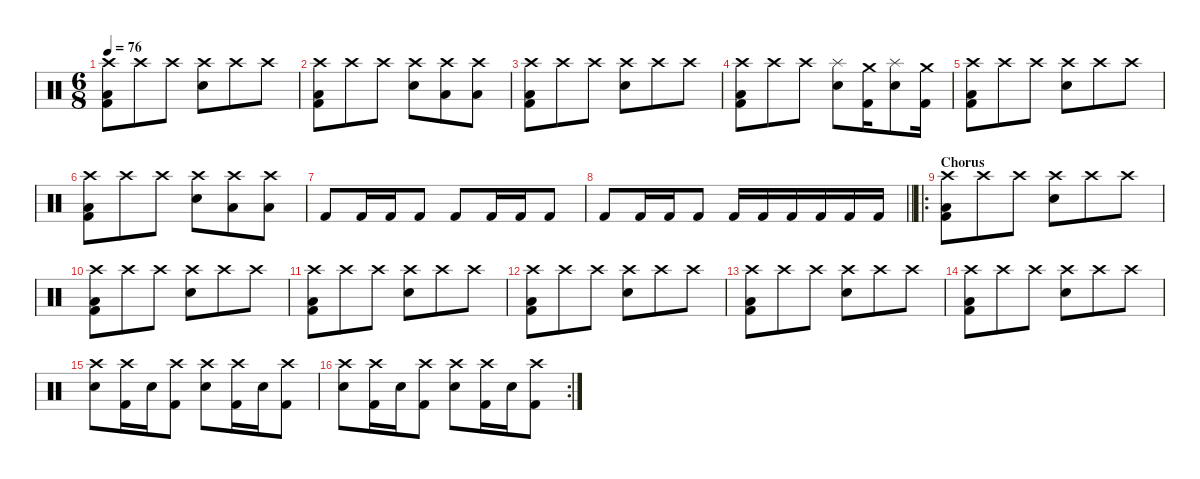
\defaultSystemsLayout 4
\hideDynamics
\bracketExtendMode nobrackets
\singleTrackTrackNamePolicy hidden
\multiTrackTrackNamePolicy hidden
\firstSystemTrackNameMode fullname
\firstSystemTrackNameOrientation horizontal
\otherSystemsTrackNameOrientation horizontal
\track ("Drums" "drm.") {instrument percussion}
\staff {score}
\articulation defaults
\ts (6 8)
\tempo 76
\clef neutral
\ks c
("Crash high (hit)" "Low Floor Tom (hit)" "Kick (hit) 2").8{dy f beam Down} "Crash high (hit)".8{beam Down} "Crash high (hit)".8{beam Down} ("Crash high (hit)" "Snare (hit) 2").8{beam Down} "Crash high (hit)".8{beam Down} "Crash high (hit)".8{beam Down} |
("Crash high (hit)" "Low Floor Tom (hit)" "Kick (hit) 2").8{beam Down} "Crash high (hit)".8{beam Down} "Crash high (hit)".8{beam Down} ("Crash high (hit)" "Snare (hit) 2").8{beam Down} ("Crash high (hit)" "Low Tom (hit)").8{beam Down} ("Crash high (hit)" "Low Tom (hit)").8{beam Down} |
("Crash high (hit)" "Low Floor Tom (hit)" "Kick (hit) 2").8{beam Down} "Crash high (hit)".8{beam Down} "Crash high (hit)".8{beam Down} ("Crash high (hit)" "Snare (hit) 2").8{beam Down} "Crash high (hit)".8{beam Down} "Crash high (hit)".8{beam Down} |
("Crash high (hit)" "Low Floor Tom (hit)" "Kick (hit) 2").8{beam Down} "Crash high (hit)".8{beam Down} "Crash high (hit)".8{beam Down} ("Splash (hit)" "Snare (hit) 2").8{beam Down} ("Crash medium (hit)" "Kick (hit) 2").16{beam Down} ("Splash (hit)" "Snare (hit) 2").8{beam Down} ("Crash medium (hit)" "Kick (hit) 2").16{beam Down} |
("Crash high (hit)" "Low Floor Tom (hit)" "Kick (hit) 2").8{beam Down} "Crash high (hit)".8{beam Down} "Crash high (hit)".8{beam Down} ("Crash high (hit)" "Snare (hit) 2").8{beam Down} "Crash high (hit)".8{beam Down} "Crash high (hit)".8{beam Down} |
("Crash high (hit)" "Low Floor Tom (hit)" "Kick (hit) 2").8{beam Down} "Crash high (hit)".8{beam Down} "Crash high (hit)".8{beam Down} ("Crash high (hit)" "Snare (hit) 2").8{beam Down} ("Crash high (hit)" "Low Tom (hit)").8{beam Down} ("Crash high (hit)" "Low Tom (hit)").8{beam Down} |
"Kick (hit) 2".8{dy fff beam Up} "Kick (hit) 2".16{beam Up} "Kick (hit) 2".16{beam Up} "Kick (hit) 2".8{beam Up} "Kick (hit) 2".8{beam Up} "Kick (hit) 2".16{beam Up} "Kick (hit) 2".16{beam Up} "Kick (hit) 2".8{beam Up} |
\barLineRight lightlight "Kick (hit) 2".8{beam Up} "Kick (hit) 2".16{beam Up} "Kick (hit) 2".16{beam Up} "Kick (hit) 2".8{beam Up} "Kick (hit) 2".16{beam Up} "Kick (hit) 2".16{beam Up} "Kick (hit) 2".16{beam Up} "Kick (hit) 2".16{beam Up} "Kick (hit) 2".16{beam Up} "Kick (hit) 2".16{beam Up}
|
\ro
\section ("" "Chorus")
("Crash high (hit)" "Low Floor Tom (hit)" "Kick (hit) 2").8{dy f beam Down} "Crash high (hit)".8{beam Down} "Crash high (hit)".8{beam Down} ("Crash high (hit)" "Snare (hit) 2").8{beam Down} "Crash high (hit)".8{beam Down} "Crash high (hit)".8{beam Down} |
("Crash high (hit)" "Low Floor Tom (hit)" "Kick (hit) 2").8{beam Down} "Crash high (hit)".8{beam Down} "Crash high (hit)".8{beam Down} ("Crash high (hit)" "Snare (hit) 2").8{beam Down} "Crash high (hit)".8{beam Down} "Crash high (hit)".8{beam Down} |
("Crash high (hit)" "Low Floor Tom (hit)" "Kick (hit) 2").8{beam Down} "Crash high (hit)".8{beam Down} "Crash high (hit)".8{beam Down} ("Crash high (hit)" "Snare (hit) 2").8{beam Down} "Crash high (hit)".8{beam Down} "Crash high (hit)".8{beam Down} |
("Crash high (hit)" "Low Floor Tom (hit)" "Kick (hit) 2").8{beam Down} "Crash high (hit)".8{beam Down} "Crash high (hit)".8{beam Down} ("Crash high (hit)" "Snare (hit) 2").8{beam Down} "Crash high (hit)".8{beam Down} "Crash high (hit)".8{beam Down} |
("Crash high (hit)" "Low Floor Tom (hit)" "Kick (hit) 2").8{beam Down} "Crash high (hit)".8{beam Down} "Crash high (hit)".8{beam Down} ("Crash high (hit)" "Snare (hit) 2").8{beam Down} "Crash high (hit)".8{beam Down} "Crash high (hit)".8{beam Down} |
("Crash high (hit)" "Low Floor Tom (hit)" "Kick (hit) 2").8{beam Down} "Crash high (hit)".8{beam Down} "Crash high (hit)".8{beam Down} ("Crash high (hit)" "Snare (hit) 2").8{beam Down} "Crash high (hit)".8{beam Down} "Crash high (hit)".8{beam Down} |
("Crash high (hit)" "Snare (hit) 2").8{beam Down} ("Crash high (hit)" "Kick (hit) 2").16{beam Down} "Snare (hit) 2".16{beam Down} ("Crash high (hit)" "Kick (hit) 2").8{beam Down} ("Crash high (hit)" "Snare (hit) 2").8{beam Down} ("Crash high (hit)" "Kick (hit) 2").16{beam Down} "Snare (hit) 2".16{beam Down} ("Crash high (hit)" "Kick (hit) 2").8{beam Down} |
\rc 2
("Crash high (hit)" "Snare (hit) 2").8{beam Down} ("Crash high (hit)" "Kick (hit) 2").16{beam Down} "Snare (hit) 2".16{beam Down} ("Crash high (hit)" "Kick (hit) 2").8{beam Down} ("Crash high (hit)" "Snare (hit) 2").8{beam Down} ("Crash high (hit)" "Kick (hit) 2").16{beam Down} "Snare (hit) 2".16{beam Down} ("Crash high (hit)" "Kick (hit) 2").8{beam Down}
